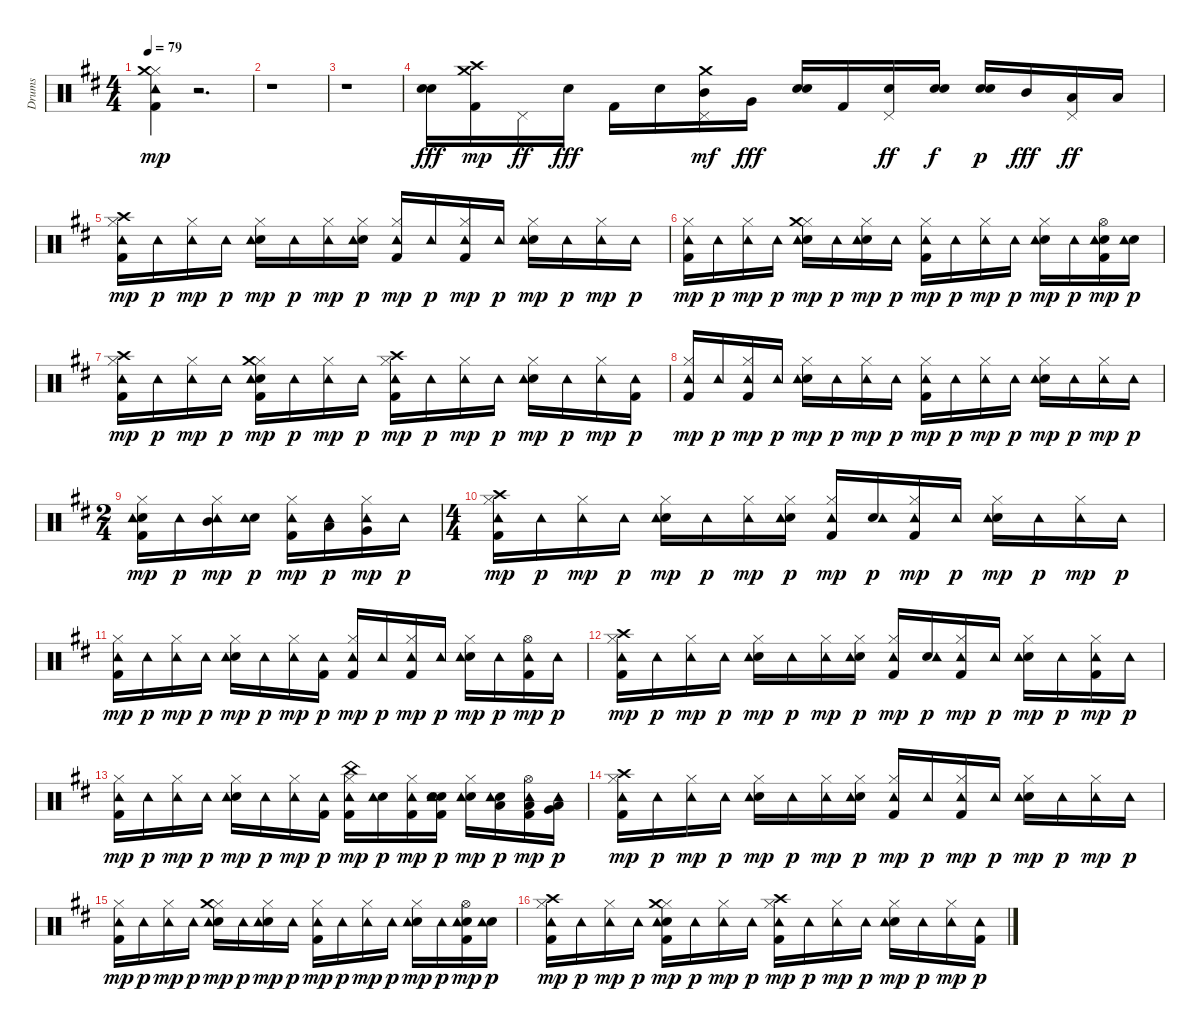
\track ("Drums" "Drums") {instrument percussion}
\staff {score}
\articulation defaults
\ts (4 4)
\tempo 79
\clef neutral
\ks d
("Kick (hit) 2" "Hi-Hat (closed)" "Tambourine (hit)" "Crash medium (hit)").4{dy mp} r.2{d} |
r.1 |
r.1 |
("Electric Snare (hit)" "Electric Snare (hit)").16{dy fff} ("Kick (hit) 2" "Crash high (hit)" "Crash medium (hit)").16{dy mp} "Pedal Hi-Hat (hit)".16{dy ff} "Electric Snare (hit)".16{dy fff} "Kick (hit) 2".16 "Electric Snare (hit)".16 ("Pedal Hi-Hat (hit)" "Mid Tom (hit)" "Crash medium (hit)").16{dy mf} "Very Low Tom (hit)".16{dy fff} ("Electric Snare (hit)" "Electric Snare (hit)").16 "Kick (hit) 2".16 ("Electric Snare (hit)" "Pedal Hi-Hat (hit)").16{dy ff} ("Electric Snare (hit)" "Electric Snare (hit)").16{dy f} ("Electric Snare (hit)" "Electric Snare (hit)").16{dy p} "Mid Tom (hit)".16{dy fff} ("Pedal Hi-Hat (hit)" "Low Tom (hit)").16{dy ff} "Low Floor Tom (hit)".16 |
("Kick (hit) 2" "Hi-Hat (closed)" "Crash high (hit)" "Tambourine (hit)").16{dy mp} "Tambourine (hit)".16{dy p} ("Hi-Hat (closed)" "Tambourine (hit)").16{dy mp} "Tambourine (hit)".16{dy p} ("Electric Snare (hit)" "Hi-Hat (closed)" "Tambourine (hit)").16{dy mp} "Tambourine (hit)".16{dy p} ("Hi-Hat (closed)" "Tambourine (hit)").16{dy mp} ("Electric Snare (hit)" "Hi-Hat (closed)" "Tambourine (hit)").16{dy p} ("Kick (hit) 2" "Hi-Hat (closed)" "Tambourine (hit)").16{dy mp} "Tambourine (hit)".16{dy p} ("Kick (hit) 2" "Hi-Hat (closed)" "Tambourine (hit)").16{dy mp} "Tambourine (hit)".16{dy p} ("Electric Snare (hit)" "Hi-Hat (closed)" "Tambourine (hit)").16{dy mp} "Tambourine (hit)".16{dy p} ("Hi-Hat (closed)" "Tambourine (hit)").16{dy mp} "Tambourine (hit)".16{dy p} |
("Kick (hit) 2" "Hi-Hat (closed)" "Tambourine (hit)").16{dy mp} "Tambourine (hit)".16{dy p} ("Hi-Hat (closed)" "Tambourine (hit)").16{dy mp} "Tambourine (hit)".16{dy p} ("Electric Snare (hit)" "Hi-Hat (closed)" "Tambourine (hit)" "Crash medium (hit)").16{dy mp} "Tambourine (hit)".16{dy p} ("Electric Snare (hit)" "Hi-Hat (closed)" "Tambourine (hit)").16{dy mp} "Tambourine (hit)".16{dy p} ("Kick (hit) 2" "Hi-Hat (closed)" "Tambourine (hit)").16{dy mp} "Tambourine (hit)".16{dy p} ("Hi-Hat (closed)" "Tambourine (hit)").16{dy mp} "Tambourine (hit)".16{dy p} ("Electric Snare (hit)" "Hi-Hat (closed)" "Tambourine (hit)").16{dy mp} "Tambourine (hit)".16{dy p} ("Kick (hit) 2" "Electric Snare (hit)" "Hi-Hat (open)" "Tambourine (hit)").16{dy mp} ("Electric Snare (hit)" "Tambourine (hit)").16{dy p} |
("Kick (hit) 2" "Hi-Hat (closed)" "Crash high (hit)" "Tambourine (hit)").16{dy mp} "Tambourine (hit)".16{dy p} ("Hi-Hat (closed)" "Tambourine (hit)").16{dy mp} "Tambourine (hit)".16{dy p} ("Kick (hit) 2" "Electric Snare (hit)" "Hi-Hat (closed)" "Tambourine (hit)" "Crash medium (hit)").16{dy mp} "Tambourine (hit)".16{dy p} ("Hi-Hat (closed)" "Tambourine (hit)").16{dy mp} "Tambourine (hit)".16{dy p} ("Kick (hit) 2" "Hi-Hat (closed)" "Crash high (hit)" "Tambourine (hit)").16{dy mp} "Tambourine (hit)".16{dy p} ("Hi-Hat (closed)" "Tambourine (hit)").16{dy mp} "Tambourine (hit)".16{dy p} ("Electric Snare (hit)" "Hi-Hat (closed)" "Tambourine (hit)").16{dy mp} "Tambourine (hit)".16{dy p} ("Hi-Hat (closed)" "Tambourine (hit)").16{dy mp} ("Kick (hit) 2" "Tambourine (hit)").16{dy p} |
("Kick (hit) 2" "Hi-Hat (closed)" "Tambourine (hit)").16{dy mp} "Tambourine (hit)".16{dy p} ("Kick (hit) 2" "Hi-Hat (closed)" "Tambourine (hit)").16{dy mp} "Tambourine (hit)".16{dy p} ("Electric Snare (hit)" "Hi-Hat (closed)" "Tambourine (hit)").16{dy mp} "Tambourine (hit)".16{dy p} ("Hi-Hat (closed)" "Tambourine (hit)").16{dy mp} "Tambourine (hit)".16{dy p} ("Kick (hit) 2" "Hi-Hat (closed)" "Tambourine (hit)").16{dy mp} "Tambourine (hit)".16{dy p} ("Hi-Hat (closed)" "Tambourine (hit)").16{dy mp} "Tambourine (hit)".16{dy p} ("Electric Snare (hit)" "Hi-Hat (closed)" "Tambourine (hit)").16{dy mp} "Tambourine (hit)".16{dy p} ("Hi-Hat (closed)" "Tambourine (hit)").16{dy mp} "Tambourine (hit)".16{dy p} |
\ts (2 4)
("Kick (hit) 2" "Electric Snare (hit)" "Hi-Hat (closed)" "Tambourine (hit)").16{dy mp} "Tambourine (hit)".16{dy p} ("Hi-Hat (closed)" "Mid Tom (hit)" "Tambourine (hit)").16{dy mp} ("Electric Snare (hit)" "Tambourine (hit)").16{dy p} ("Kick (hit) 2" "Hi-Hat (closed)" "Tambourine (hit)").16{dy mp} ("Low Tom (hit)" "Tambourine (hit)").16{dy p} ("Hi-Hat (closed)" "Very Low Tom (hit)" "Tambourine (hit)").16{dy mp} "Tambourine (hit)".16{dy p} |
\ts (4 4)
("Kick (hit) 2" "Hi-Hat (closed)" "Crash high (hit)" "Tambourine (hit)").16{dy mp} "Tambourine (hit)".16{dy p} ("Hi-Hat (closed)" "Tambourine (hit)").16{dy mp} "Tambourine (hit)".16{dy p} ("Electric Snare (hit)" "Hi-Hat (closed)" "Tambourine (hit)").16{dy mp} "Tambourine (hit)".16{dy p} ("Hi-Hat (closed)" "Tambourine (hit)").16{dy mp} ("Electric Snare (hit)" "Hi-Hat (closed)" "Tambourine (hit)").16{dy p} ("Kick (hit) 2" "Hi-Hat (closed)" "Tambourine (hit)").16{dy mp} ("Electric Snare (hit)" "Tambourine (hit)").16{dy p} ("Kick (hit) 2" "Hi-Hat (closed)" "Tambourine (hit)").16{dy mp} "Tambourine (hit)".16{dy p} ("Electric Snare (hit)" "Hi-Hat (closed)" "Tambourine (hit)").16{dy mp} "Tambourine (hit)".16{dy p} ("Hi-Hat (closed)" "Tambourine (hit)").16{dy mp} "Tambourine (hit)".16{dy p} |
("Kick (hit) 2" "Hi-Hat (closed)" "Tambourine (hit)").16{dy mp} "Tambourine (hit)".16{dy p} ("Hi-Hat (closed)" "Tambourine (hit)").16{dy mp} "Tambourine (hit)".16{dy p} ("Electric Snare (hit)" "Hi-Hat (closed)" "Tambourine (hit)").16{dy mp} "Tambourine (hit)".16{dy p} ("Hi-Hat (closed)" "Tambourine (hit)").16{dy mp} ("Kick (hit) 2" "Tambourine (hit)").16{dy p} ("Kick (hit) 2" "Hi-Hat (closed)" "Tambourine (hit)").16{dy mp} "Tambourine (hit)".16{dy p} ("Kick (hit) 2" "Hi-Hat (closed)" "Tambourine (hit)").16{dy mp} "Tambourine (hit)".16{dy p} ("Electric Snare (hit)" "Hi-Hat (closed)" "Tambourine (hit)").16{dy mp} "Tambourine (hit)".16{dy p} ("Kick (hit) 2" "Hi-Hat (open)" "Tambourine (hit)").16{dy mp} "Tambourine (hit)".16{dy p} |
("Kick (hit) 2" "Hi-Hat (closed)" "Crash high (hit)" "Tambourine (hit)").16{dy mp} "Tambourine (hit)".16{dy p} ("Hi-Hat (closed)" "Tambourine (hit)").16{dy mp} "Tambourine (hit)".16{dy p} ("Electric Snare (hit)" "Hi-Hat (closed)" "Tambourine (hit)").16{dy mp} "Tambourine (hit)".16{dy p} ("Hi-Hat (closed)" "Tambourine (hit)").16{dy mp} ("Electric Snare (hit)" "Hi-Hat (closed)" "Tambourine (hit)").16{dy p} ("Kick (hit) 2" "Hi-Hat (closed)" "Tambourine (hit)").16{dy mp} ("Electric Snare (hit)" "Tambourine (hit)").16{dy p} ("Kick (hit) 2" "Hi-Hat (closed)" "Tambourine (hit)").16{dy mp} "Tambourine (hit)".16{dy p} ("Electric Snare (hit)" "Hi-Hat (closed)" "Tambourine (hit)").16{dy mp} "Tambourine (hit)".16{dy p} ("Kick (hit) 2" "Hi-Hat (closed)" "Tambourine (hit)").16{dy mp} "Tambourine (hit)".16{dy p} |
("Kick (hit) 2" "Hi-Hat (closed)" "Tambourine (hit)").16{dy mp} "Tambourine (hit)".16{dy p} ("Hi-Hat (closed)" "Tambourine (hit)").16{dy mp} "Tambourine (hit)".16{dy p} ("Electric Snare (hit)" "Hi-Hat (closed)" "Tambourine (hit)").16{dy mp} "Tambourine (hit)".16{dy p} ("Hi-Hat (closed)" "Tambourine (hit)").16{dy mp} ("Kick (hit) 2" "Tambourine (hit)").16{dy p} ("Kick (hit) 2" "Hi-Hat (closed)" "China (hit)" "Tambourine (hit)").16{dy mp} ("Electric Snare (hit)" "Tambourine (hit)").16{dy p} ("Kick (hit) 2" "Hi-Hat (closed)" "Tambourine (hit)").16{dy mp} ("Kick (hit) 2" "Electric Snare (hit)" "Electric Snare (hit)" "Tambourine (hit)").16{dy p} ("Electric Snare (hit)" "Hi-Hat (closed)" "Tambourine (hit)").16{dy mp} ("Electric Snare (hit)" "Low Tom (hit)" "Tambourine (hit)").16{dy p} ("Kick (hit) 2" "Low Tom (hit)" "Hi-Hat (open)" "Tambourine (hit)").16{dy mp} ("Low Floor Tom (hit)" "Very Low Tom (hit)" "Tambourine (hit)").16{dy p} |
("Kick (hit) 2" "Hi-Hat (closed)" "Crash high (hit)" "Tambourine (hit)").16{dy mp} "Tambourine (hit)".16{dy p} ("Hi-Hat (closed)" "Tambourine (hit)").16{dy mp} "Tambourine (hit)".16{dy p} ("Electric Snare (hit)" "Hi-Hat (closed)" "Tambourine (hit)").16{dy mp} "Tambourine (hit)".16{dy p} ("Hi-Hat (closed)" "Tambourine (hit)").16{dy mp} ("Electric Snare (hit)" "Hi-Hat (closed)" "Tambourine (hit)").16{dy p} ("Kick (hit) 2" "Hi-Hat (closed)" "Tambourine (hit)").16{dy mp} "Tambourine (hit)".16{dy p} ("Kick (hit) 2" "Hi-Hat (closed)" "Tambourine (hit)").16{dy mp} "Tambourine (hit)".16{dy p} ("Electric Snare (hit)" "Hi-Hat (closed)" "Tambourine (hit)").16{dy mp} "Tambourine (hit)".16{dy p} ("Hi-Hat (closed)" "Tambourine (hit)").16{dy mp} "Tambourine (hit)".16{dy p} |
("Kick (hit) 2" "Hi-Hat (closed)" "Tambourine (hit)").16{dy mp} "Tambourine (hit)".16{dy p} ("Hi-Hat (closed)" "Tambourine (hit)").16{dy mp} "Tambourine (hit)".16{dy p} ("Electric Snare (hit)" "Hi-Hat (closed)" "Tambourine (hit)" "Crash medium (hit)").16{dy mp} "Tambourine (hit)".16{dy p} ("Electric Snare (hit)" "Hi-Hat (closed)" "Tambourine (hit)").16{dy mp} "Tambourine (hit)".16{dy p} ("Kick (hit) 2" "Hi-Hat (closed)" "Tambourine (hit)").16{dy mp} "Tambourine (hit)".16{dy p} ("Hi-Hat (closed)" "Tambourine (hit)").16{dy mp} "Tambourine (hit)".16{dy p} ("Electric Snare (hit)" "Hi-Hat (closed)" "Tambourine (hit)").16{dy mp} "Tambourine (hit)".16{dy p} ("Kick (hit) 2" "Electric Snare (hit)" "Hi-Hat (open)" "Tambourine (hit)").16{dy mp} ("Electric Snare (hit)" "Tambourine (hit)").16{dy p} |
("Kick (hit) 2" "Hi-Hat (closed)" "Crash high (hit)" "Tambourine (hit)").16{dy mp} "Tambourine (hit)".16{dy p} ("Hi-Hat (closed)" "Tambourine (hit)").16{dy mp} "Tambourine (hit)".16{dy p} ("Kick (hit) 2" "Electric Snare (hit)" "Hi-Hat (closed)" "Tambourine (hit)" "Crash medium (hit)").16{dy mp} "Tambourine (hit)".16{dy p} ("Hi-Hat (closed)" "Tambourine (hit)").16{dy mp} "Tambourine (hit)".16{dy p} ("Kick (hit) 2" "Hi-Hat (closed)" "Crash high (hit)" "Tambourine (hit)").16{dy mp} "Tambourine (hit)".16{dy p} ("Hi-Hat (closed)" "Tambourine (hit)").16{dy mp} "Tambourine (hit)".16{dy p} ("Electric Snare (hit)" "Hi-Hat (closed)" "Tambourine (hit)").16{dy mp} "Tambourine (hit)".16{dy p} ("Hi-Hat (closed)" "Tambourine (hit)").16{dy mp} ("Kick (hit) 2" "Tambourine (hit)").16{dy p}
